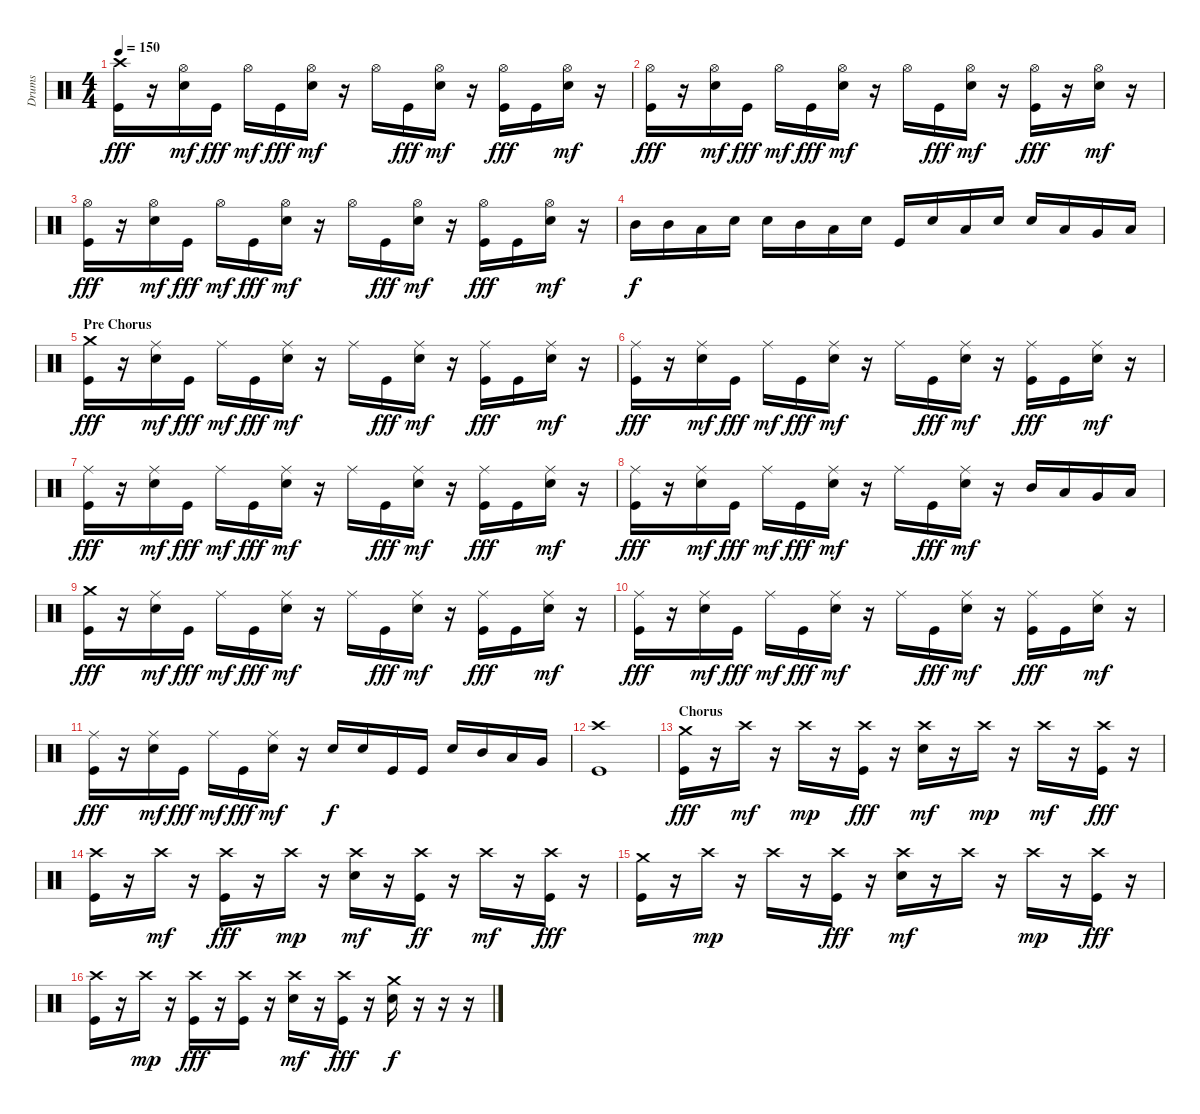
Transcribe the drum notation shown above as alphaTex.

\track ("Drums" "Drums") {instrument percussion}
\staff {score}
\articulation defaults
\ts (4 4)
\tempo 150
\clef neutral
\ks c
("Crash high (hit)" "Kick (hit)").16{dy fff} r.16 ("Hi-Hat (open)" "Electric Snare (hit)").16{dy mf} "Kick (hit)".16{dy fff} "Hi-Hat (open)".16{dy mf} "Kick (hit)".16{dy fff} ("Hi-Hat (open)" "Electric Snare (hit)").16{dy mf} r.16 "Hi-Hat (open)".16 "Kick (hit)".16{dy fff} ("Hi-Hat (open)" "Electric Snare (hit)").16{dy mf} r.16 ("Hi-Hat (open)" "Kick (hit)").16{dy fff} "Kick (hit)".16 ("Hi-Hat (open)" "Electric Snare (hit)").16{dy mf} r.16 |
("Hi-Hat (open)" "Kick (hit)").16{dy fff} r.16 ("Hi-Hat (open)" "Electric Snare (hit)").16{dy mf} "Kick (hit)".16{dy fff} "Hi-Hat (open)".16{dy mf} "Kick (hit)".16{dy fff} ("Hi-Hat (open)" "Electric Snare (hit)").16{dy mf} r.16 "Hi-Hat (open)".16 "Kick (hit)".16{dy fff} ("Hi-Hat (open)" "Electric Snare (hit)").16{dy mf} r.16 ("Hi-Hat (open)" "Kick (hit)").16{dy fff} r.16 ("Hi-Hat (open)" "Electric Snare (hit)").16{dy mf} r.16 |
("Hi-Hat (open)" "Kick (hit)").16{dy fff} r.16 ("Hi-Hat (open)" "Electric Snare (hit)").16{dy mf} "Kick (hit)".16{dy fff} "Hi-Hat (open)".16{dy mf} "Kick (hit)".16{dy fff} ("Hi-Hat (open)" "Electric Snare (hit)").16{dy mf} r.16 "Hi-Hat (open)".16 "Kick (hit)".16{dy fff} ("Hi-Hat (open)" "Electric Snare (hit)").16{dy mf} r.16 ("Hi-Hat (open)" "Kick (hit)").16{dy fff} "Kick (hit)".16 ("Hi-Hat (open)" "Electric Snare (hit)").16{dy mf} r.16 |
"Mid Tom (hit)".16{dy f} "Mid Tom (hit)".16 "Low Tom (hit)".16 "Electric Snare (hit)".16 "Electric Snare (hit)".16 "Mid Tom (hit)".16 "Low Tom (hit)".16 "Electric Snare (hit)".16 "Kick (hit)".16 "Electric Snare (hit)".16 "Low Tom (hit)".16 "Electric Snare (hit)".16 "Electric Snare (hit)".16 "Low Tom (hit)".16 "Very Low Tom (hit)".16 "Low Floor Tom (hit)".16 |
\section ("" "Pre Chorus")
("Crash medium (hit)" "Kick (hit)").16{dy fff} r.16 ("Ride (middle)" "Electric Snare (hit)").16{dy mf} "Kick (hit)".16{dy fff} "Ride (middle)".16{dy mf} "Kick (hit)".16{dy fff} ("Ride (middle)" "Electric Snare (hit)").16{dy mf} r.16 "Ride (middle)".16 "Kick (hit)".16{dy fff} ("Ride (middle)" "Electric Snare (hit)").16{dy mf} r.16 ("Ride (middle)" "Kick (hit)").16{dy fff} "Kick (hit)".16 ("Ride (middle)" "Electric Snare (hit)").16{dy mf} r.16 |
("Ride (middle)" "Kick (hit)").16{dy fff} r.16 ("Ride (middle)" "Electric Snare (hit)").16{dy mf} "Kick (hit)".16{dy fff} "Ride (middle)".16{dy mf} "Kick (hit)".16{dy fff} ("Ride (middle)" "Electric Snare (hit)").16{dy mf} r.16 "Ride (middle)".16 "Kick (hit)".16{dy fff} ("Ride (middle)" "Electric Snare (hit)").16{dy mf} r.16 ("Ride (middle)" "Kick (hit)").16{dy fff} "Kick (hit)".16 ("Ride (middle)" "Electric Snare (hit)").16{dy mf} r.16 |
("Ride (middle)" "Kick (hit)").16{dy fff} r.16 ("Ride (middle)" "Electric Snare (hit)").16{dy mf} "Kick (hit)".16{dy fff} "Ride (middle)".16{dy mf} "Kick (hit)".16{dy fff} ("Ride (middle)" "Electric Snare (hit)").16{dy mf} r.16 "Ride (middle)".16 "Kick (hit)".16{dy fff} ("Ride (middle)" "Electric Snare (hit)").16{dy mf} r.16 ("Ride (middle)" "Kick (hit)").16{dy fff} "Kick (hit)".16 ("Ride (middle)" "Electric Snare (hit)").16{dy mf} r.16 |
("Ride (middle)" "Kick (hit)").16{dy fff} r.16 ("Ride (middle)" "Electric Snare (hit)").16{dy mf} "Kick (hit)".16{dy fff} "Ride (middle)".16{dy mf} "Kick (hit)".16{dy fff} ("Ride (middle)" "Electric Snare (hit)").16{dy mf} r.16 "Ride (middle)".16 "Kick (hit)".16{dy fff} ("Ride (middle)" "Electric Snare (hit)").16{dy mf} r.16 "Mid Tom (hit)".16 "Low Tom (hit)".16 "Very Low Tom (hit)".16 "Low Floor Tom (hit)".16 |
("Crash medium (hit)" "Kick (hit)").16{dy fff} r.16 ("Ride (middle)" "Electric Snare (hit)").16{dy mf} "Kick (hit)".16{dy fff} "Ride (middle)".16{dy mf} "Kick (hit)".16{dy fff} ("Ride (middle)" "Electric Snare (hit)").16{dy mf} r.16 "Ride (middle)".16 "Kick (hit)".16{dy fff} ("Ride (middle)" "Electric Snare (hit)").16{dy mf} r.16 ("Ride (middle)" "Kick (hit)").16{dy fff} "Kick (hit)".16 ("Ride (middle)" "Electric Snare (hit)").16{dy mf} r.16 |
("Ride (middle)" "Kick (hit)").16{dy fff} r.16 ("Ride (middle)" "Electric Snare (hit)").16{dy mf} "Kick (hit)".16{dy fff} "Ride (middle)".16{dy mf} "Kick (hit)".16{dy fff} ("Ride (middle)" "Electric Snare (hit)").16{dy mf} r.16 "Ride (middle)".16 "Kick (hit)".16{dy fff} ("Ride (middle)" "Electric Snare (hit)").16{dy mf} r.16 ("Ride (middle)" "Kick (hit)").16{dy fff} "Kick (hit)".16 ("Ride (middle)" "Electric Snare (hit)").16{dy mf} r.16 |
("Ride (middle)" "Kick (hit)").16{dy fff} r.16 ("Ride (middle)" "Electric Snare (hit)").16{dy mf} "Kick (hit)".16{dy fff} "Ride (middle)".16{dy mf} "Kick (hit)".16{dy fff} ("Ride (middle)" "Electric Snare (hit)").16{dy mf} r.16 "Electric Snare (hit)".16{dy f} "Electric Snare (hit)".16 "Kick (hit)".16 "Kick (hit)".16 "Electric Snare (hit)".16 "Mid Tom (hit)".16 "Low Tom (hit)".16 "Very Low Tom (hit)".16 |
("Crash high (hit)" "Kick (hit)").1 |
\section ("" "Chorus")
("Crash medium (hit)" "Kick (hit)").16{dy fff} r.16 "Crash high (hit)".16{dy mf} r.16 "Crash high (hit)".16{dy mp} r.16 ("Crash high (hit)" "Kick (hit)").16{dy fff} r.16 ("Crash high (hit)" "Electric Snare (hit)").16{dy mf} r.16 "Crash high (hit)".16{dy mp} r.16 "Crash high (hit)".16{dy mf} r.16 ("Crash high (hit)" "Kick (hit)").16{dy fff} r.16 |
("Crash high (hit)" "Kick (hit)").16 r.16 "Crash high (hit)".16{dy mf} r.16 ("Crash high (hit)" "Kick (hit)").16{dy fff} r.16 "Crash high (hit)".16{dy mp} r.16 ("Crash high (hit)" "Electric Snare (hit)").16{dy mf} r.16 ("Crash high (hit)" "Kick (hit)").16{dy ff} r.16 "Crash high (hit)".16{dy mf} r.16 ("Crash high (hit)" "Kick (hit)").16{dy fff} r.16 |
("Crash medium (hit)" "Kick (hit)").16 r.16 "Crash high (hit)".16{dy mp} r.16 "Crash high (hit)".16 r.16 ("Crash high (hit)" "Kick (hit)").16{dy fff} r.16 ("Crash high (hit)" "Electric Snare (hit)").16{dy mf} r.16 "Crash high (hit)".16 r.16 "Crash high (hit)".16{dy mp} r.16 ("Crash high (hit)" "Kick (hit)").16{dy fff} r.16 |
("Crash high (hit)" "Kick (hit)").16 r.16 "Crash high (hit)".16{dy mp} r.16 ("Crash high (hit)" "Kick (hit)").16{dy fff} r.16 ("Crash high (hit)" "Kick (hit)").16 r.16 ("Crash high (hit)" "Electric Snare (hit)").16{dy mf} r.16 ("Crash high (hit)" "Kick (hit)").16{dy fff} r.16 ("Crash medium (hit)" "Electric Snare (hit)").16{dy f} r.16 r.16 r.16
